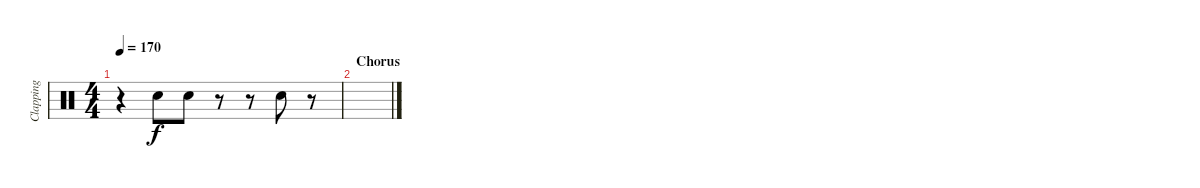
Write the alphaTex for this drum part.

\track ("Clapping" "Clapping") {instrument percussion}
\staff {score}
\articulation defaults
\ts (4 4)
\tempo 170
\clef neutral
\ks c
r.4{dy f} "Hand Clap (hit)".8 "Hand Clap (hit)".8 r.8 r.8 "Hand Clap (hit)".8 r.8 |
\section ("" "Chorus")
